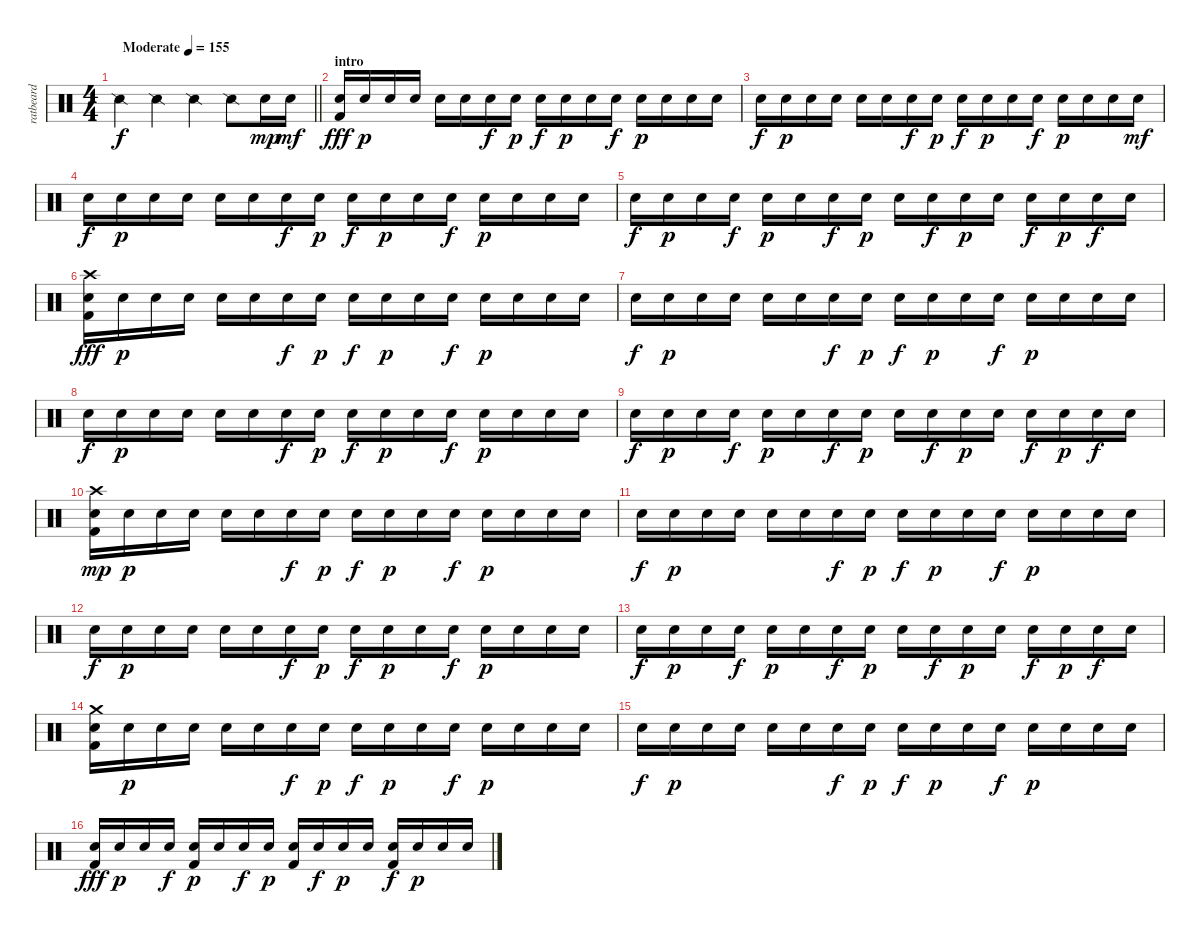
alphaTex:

\track ("ratbeard" "ratbeard") {instrument percussion}
\staff {score}
\articulation defaults
\ts (4 4)
\tempo (155 "Moderate")
\clef neutral
\barLineRight lightlight
\ks c "Snare (side stick) 2".4{dy f} "Snare (side stick) 2".4 "Snare (side stick) 2".4 "Snare (side stick) 2".8 "Electric Snare (hit)".16{dy mp} "Electric Snare (hit)".16{dy mf}
|
\section ("" "intro")
("Electric Snare (hit)" "Kick (hit) 2").16{dy fff} "Electric Snare (hit)".16{dy p} "Electric Snare (hit)".16 "Electric Snare (hit)".16 "Electric Snare (hit)".16 "Electric Snare (hit)".16 "Electric Snare (hit)".16{dy f} "Electric Snare (hit)".16{dy p} "Electric Snare (hit)".16{dy f} "Electric Snare (hit)".16{dy p} "Electric Snare (hit)".16 "Electric Snare (hit)".16{dy f} "Electric Snare (hit)".16{dy p} "Electric Snare (hit)".16 "Electric Snare (hit)".16 "Electric Snare (hit)".16 |
"Electric Snare (hit)".16{dy f} "Electric Snare (hit)".16{dy p} "Electric Snare (hit)".16 "Electric Snare (hit)".16 "Electric Snare (hit)".16 "Electric Snare (hit)".16 "Electric Snare (hit)".16{dy f} "Electric Snare (hit)".16{dy p} "Electric Snare (hit)".16{dy f} "Electric Snare (hit)".16{dy p} "Electric Snare (hit)".16 "Electric Snare (hit)".16{dy f} "Electric Snare (hit)".16{dy p} "Electric Snare (hit)".16 "Electric Snare (hit)".16 "Electric Snare (hit)".16{dy mf} |
"Electric Snare (hit)".16{dy f} "Electric Snare (hit)".16{dy p} "Electric Snare (hit)".16 "Electric Snare (hit)".16 "Electric Snare (hit)".16 "Electric Snare (hit)".16 "Electric Snare (hit)".16{dy f} "Electric Snare (hit)".16{dy p} "Electric Snare (hit)".16{dy f} "Electric Snare (hit)".16{dy p} "Electric Snare (hit)".16 "Electric Snare (hit)".16{dy f} "Electric Snare (hit)".16{dy p} "Electric Snare (hit)".16 "Electric Snare (hit)".16 "Electric Snare (hit)".16 |
"Electric Snare (hit)".16{dy f} "Electric Snare (hit)".16{dy p} "Electric Snare (hit)".16 "Electric Snare (hit)".16{dy f} "Electric Snare (hit)".16{dy p} "Electric Snare (hit)".16 "Electric Snare (hit)".16{dy f} "Electric Snare (hit)".16{dy p} "Electric Snare (hit)".16 "Electric Snare (hit)".16{dy f} "Electric Snare (hit)".16{dy p} "Electric Snare (hit)".16 "Electric Snare (hit)".16{dy f} "Electric Snare (hit)".16{dy p} "Electric Snare (hit)".16{dy f} "Electric Snare (hit)".16 |
("Crash high (hit)" "Electric Snare (hit)" "Kick (hit) 2").16{dy fff} "Electric Snare (hit)".16{dy p} "Electric Snare (hit)".16 "Electric Snare (hit)".16 "Electric Snare (hit)".16 "Electric Snare (hit)".16 "Electric Snare (hit)".16{dy f} "Electric Snare (hit)".16{dy p} "Electric Snare (hit)".16{dy f} "Electric Snare (hit)".16{dy p} "Electric Snare (hit)".16 "Electric Snare (hit)".16{dy f} "Electric Snare (hit)".16{dy p} "Electric Snare (hit)".16 "Electric Snare (hit)".16 "Electric Snare (hit)".16 |
"Electric Snare (hit)".16{dy f} "Electric Snare (hit)".16{dy p} "Electric Snare (hit)".16 "Electric Snare (hit)".16 "Electric Snare (hit)".16 "Electric Snare (hit)".16 "Electric Snare (hit)".16{dy f} "Electric Snare (hit)".16{dy p} "Electric Snare (hit)".16{dy f} "Electric Snare (hit)".16{dy p} "Electric Snare (hit)".16 "Electric Snare (hit)".16{dy f} "Electric Snare (hit)".16{dy p} "Electric Snare (hit)".16 "Electric Snare (hit)".16 "Electric Snare (hit)".16 |
"Electric Snare (hit)".16{dy f} "Electric Snare (hit)".16{dy p} "Electric Snare (hit)".16 "Electric Snare (hit)".16 "Electric Snare (hit)".16 "Electric Snare (hit)".16 "Electric Snare (hit)".16{dy f} "Electric Snare (hit)".16{dy p} "Electric Snare (hit)".16{dy f} "Electric Snare (hit)".16{dy p} "Electric Snare (hit)".16 "Electric Snare (hit)".16{dy f} "Electric Snare (hit)".16{dy p} "Electric Snare (hit)".16 "Electric Snare (hit)".16 "Electric Snare (hit)".16 |
"Electric Snare (hit)".16{dy f} "Electric Snare (hit)".16{dy p} "Electric Snare (hit)".16 "Electric Snare (hit)".16{dy f} "Electric Snare (hit)".16{dy p} "Electric Snare (hit)".16 "Electric Snare (hit)".16{dy f} "Electric Snare (hit)".16{dy p} "Electric Snare (hit)".16 "Electric Snare (hit)".16{dy f} "Electric Snare (hit)".16{dy p} "Electric Snare (hit)".16 "Electric Snare (hit)".16{dy f} "Electric Snare (hit)".16{dy p} "Electric Snare (hit)".16{dy f} "Electric Snare (hit)".16 |
("Crash high (hit)" "Electric Snare (hit)" "Kick (hit) 2").16{dy mp} "Electric Snare (hit)".16{dy p} "Electric Snare (hit)".16 "Electric Snare (hit)".16 "Electric Snare (hit)".16 "Electric Snare (hit)".16 "Electric Snare (hit)".16{dy f} "Electric Snare (hit)".16{dy p} "Electric Snare (hit)".16{dy f} "Electric Snare (hit)".16{dy p} "Electric Snare (hit)".16 "Electric Snare (hit)".16{dy f} "Electric Snare (hit)".16{dy p} "Electric Snare (hit)".16 "Electric Snare (hit)".16 "Electric Snare (hit)".16 |
"Electric Snare (hit)".16{dy f} "Electric Snare (hit)".16{dy p} "Electric Snare (hit)".16 "Electric Snare (hit)".16 "Electric Snare (hit)".16 "Electric Snare (hit)".16 "Electric Snare (hit)".16{dy f} "Electric Snare (hit)".16{dy p} "Electric Snare (hit)".16{dy f} "Electric Snare (hit)".16{dy p} "Electric Snare (hit)".16 "Electric Snare (hit)".16{dy f} "Electric Snare (hit)".16{dy p} "Electric Snare (hit)".16 "Electric Snare (hit)".16 "Electric Snare (hit)".16 |
"Electric Snare (hit)".16{dy f} "Electric Snare (hit)".16{dy p} "Electric Snare (hit)".16 "Electric Snare (hit)".16 "Electric Snare (hit)".16 "Electric Snare (hit)".16 "Electric Snare (hit)".16{dy f} "Electric Snare (hit)".16{dy p} "Electric Snare (hit)".16{dy f} "Electric Snare (hit)".16{dy p} "Electric Snare (hit)".16 "Electric Snare (hit)".16{dy f} "Electric Snare (hit)".16{dy p} "Electric Snare (hit)".16 "Electric Snare (hit)".16 "Electric Snare (hit)".16 |
"Electric Snare (hit)".16{dy f} "Electric Snare (hit)".16{dy p} "Electric Snare (hit)".16 "Electric Snare (hit)".16{dy f} "Electric Snare (hit)".16{dy p} "Electric Snare (hit)".16 "Electric Snare (hit)".16{dy f} "Electric Snare (hit)".16{dy p} "Electric Snare (hit)".16 "Electric Snare (hit)".16{dy f} "Electric Snare (hit)".16{dy p} "Electric Snare (hit)".16 "Electric Snare (hit)".16{dy f} "Electric Snare (hit)".16{dy p} "Electric Snare (hit)".16{dy f} "Electric Snare (hit)".16 |
("Crash medium (hit)" "Electric Snare (hit)" "Kick (hit) 2").16 "Electric Snare (hit)".16{dy p} "Electric Snare (hit)".16 "Electric Snare (hit)".16 "Electric Snare (hit)".16 "Electric Snare (hit)".16 "Electric Snare (hit)".16{dy f} "Electric Snare (hit)".16{dy p} "Electric Snare (hit)".16{dy f} "Electric Snare (hit)".16{dy p} "Electric Snare (hit)".16 "Electric Snare (hit)".16{dy f} "Electric Snare (hit)".16{dy p} "Electric Snare (hit)".16 "Electric Snare (hit)".16 "Electric Snare (hit)".16 |
"Electric Snare (hit)".16{dy f} "Electric Snare (hit)".16{dy p} "Electric Snare (hit)".16 "Electric Snare (hit)".16 "Electric Snare (hit)".16 "Electric Snare (hit)".16 "Electric Snare (hit)".16{dy f} "Electric Snare (hit)".16{dy p} "Electric Snare (hit)".16{dy f} "Electric Snare (hit)".16{dy p} "Electric Snare (hit)".16 "Electric Snare (hit)".16{dy f} "Electric Snare (hit)".16{dy p} "Electric Snare (hit)".16 "Electric Snare (hit)".16 "Electric Snare (hit)".16 |
("Electric Snare (hit)" "Kick (hit) 2").16{dy fff} "Electric Snare (hit)".16{dy p} "Electric Snare (hit)".16 "Electric Snare (hit)".16{dy f} ("Electric Snare (hit)" "Kick (hit) 2").16{dy p} "Electric Snare (hit)".16 "Electric Snare (hit)".16{dy f} "Electric Snare (hit)".16{dy p} ("Electric Snare (hit)" "Kick (hit) 2").16 "Electric Snare (hit)".16{dy f} "Electric Snare (hit)".16{dy p} "Electric Snare (hit)".16 ("Electric Snare (hit)" "Kick (hit) 2").16{dy f} "Electric Snare (hit)".16{dy p} "Electric Snare (hit)".16 "Electric Snare (hit)".16
